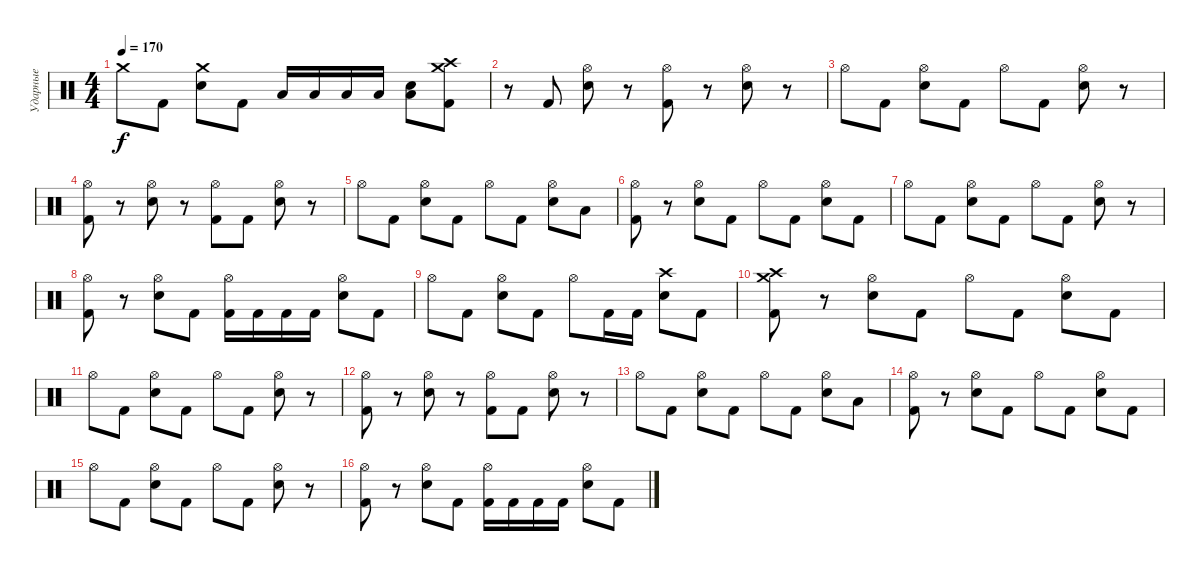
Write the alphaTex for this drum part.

\track ("Ударные" "Ударные") {instrument percussion}
\staff {score}
\articulation defaults
\ts (4 4)
\tempo 170
\clef neutral
\ks c "Crash medium (hit)".8{dy f} "Kick (hit) 2".8
("Crash medium (hit)" "Electric Snare (hit)").8 "Kick (hit) 2".8 "Low Tom (hit)".16 "Low Tom (hit)".16 "Low Floor Tom (hit)".16 "Low Floor Tom (hit)".16 ("Low Floor Tom (hit)" "Electric Snare (hit)").8 ("Crash medium (hit)" "Crash high (hit)" "Kick (hit) 2").8 |
r.8 "Kick (hit) 2".8 ("Hi-Hat (open)" "Electric Snare (hit)").8 r.8 ("Hi-Hat (open)" "Kick (hit) 2").8 r.8 ("Hi-Hat (open)" "Electric Snare (hit)").8 r.8 |
"Hi-Hat (open)".8 "Kick (hit) 2".8 ("Hi-Hat (open)" "Electric Snare (hit)").8 "Kick (hit) 2".8 "Hi-Hat (open)".8 "Kick (hit) 2".8 ("Hi-Hat (open)" "Electric Snare (hit)").8 r.8 |
("Hi-Hat (open)" "Kick (hit) 2").8 r.8 ("Hi-Hat (open)" "Electric Snare (hit)").8 r.8 ("Hi-Hat (open)" "Kick (hit) 2").8 "Kick (hit) 2".8 ("Hi-Hat (open)" "Electric Snare (hit)").8 r.8 |
"Hi-Hat (open)".8 "Kick (hit) 2".8 ("Hi-Hat (open)" "Electric Snare (hit)").8 "Kick (hit) 2".8 "Hi-Hat (open)".8 "Kick (hit) 2".8 ("Hi-Hat (open)" "Electric Snare (hit)").8 "Low Tom (hit)".8 |
("Hi-Hat (open)" "Kick (hit) 2").8 r.8 ("Hi-Hat (open)" "Electric Snare (hit)").8 "Kick (hit) 2".8 "Hi-Hat (open)".8 "Kick (hit) 2".8 ("Hi-Hat (open)" "Electric Snare (hit)").8 "Kick (hit) 2".8 |
"Hi-Hat (open)".8 "Kick (hit) 2".8 ("Hi-Hat (open)" "Electric Snare (hit)").8 "Kick (hit) 2".8 "Hi-Hat (open)".8 "Kick (hit) 2".8 ("Hi-Hat (open)" "Electric Snare (hit)").8 r.8 |
("Hi-Hat (open)" "Kick (hit) 2").8 r.8 ("Hi-Hat (open)" "Electric Snare (hit)").8 "Kick (hit) 2".8 ("Hi-Hat (open)" "Kick (hit) 2").16 "Kick (hit) 2".16 "Kick (hit) 2".16 "Kick (hit) 2".16 ("Hi-Hat (open)" "Electric Snare (hit)").8 "Kick (hit) 2".8 |
"Hi-Hat (open)".8 "Kick (hit) 2".8 ("Hi-Hat (open)" "Electric Snare (hit)").8 "Kick (hit) 2".8 "Hi-Hat (open)".8 "Kick (hit) 2".16 "Kick (hit) 2".16 ("Crash high (hit)" "Electric Snare (hit)").8 "Kick (hit) 2".8 |
("Crash medium (hit)" "Crash high (hit)" "Kick (hit) 2").8 r.8 ("Hi-Hat (open)" "Electric Snare (hit)").8 "Kick (hit) 2".8 "Hi-Hat (open)".8 "Kick (hit) 2".8 ("Hi-Hat (open)" "Electric Snare (hit)").8 "Kick (hit) 2".8 |
"Hi-Hat (open)".8 "Kick (hit) 2".8 ("Hi-Hat (open)" "Electric Snare (hit)").8 "Kick (hit) 2".8 "Hi-Hat (open)".8 "Kick (hit) 2".8 ("Hi-Hat (open)" "Electric Snare (hit)").8 r.8 |
("Hi-Hat (open)" "Kick (hit) 2").8 r.8 ("Hi-Hat (open)" "Electric Snare (hit)").8 r.8 ("Hi-Hat (open)" "Kick (hit) 2").8 "Kick (hit) 2".8 ("Hi-Hat (open)" "Electric Snare (hit)").8 r.8 |
"Hi-Hat (open)".8 "Kick (hit) 2".8 ("Hi-Hat (open)" "Electric Snare (hit)").8 "Kick (hit) 2".8 "Hi-Hat (open)".8 "Kick (hit) 2".8 ("Hi-Hat (open)" "Electric Snare (hit)").8 "Low Tom (hit)".8 |
("Hi-Hat (open)" "Kick (hit) 2").8 r.8 ("Hi-Hat (open)" "Electric Snare (hit)").8 "Kick (hit) 2".8 "Hi-Hat (open)".8 "Kick (hit) 2".8 ("Hi-Hat (open)" "Electric Snare (hit)").8 "Kick (hit) 2".8 |
"Hi-Hat (open)".8 "Kick (hit) 2".8 ("Hi-Hat (open)" "Electric Snare (hit)").8 "Kick (hit) 2".8 "Hi-Hat (open)".8 "Kick (hit) 2".8 ("Hi-Hat (open)" "Electric Snare (hit)").8 r.8 |
("Hi-Hat (open)" "Kick (hit) 2").8 r.8 ("Hi-Hat (open)" "Electric Snare (hit)").8 "Kick (hit) 2".8 ("Hi-Hat (open)" "Kick (hit) 2").16 "Kick (hit) 2".16 "Kick (hit) 2".16 "Kick (hit) 2".16 ("Hi-Hat (open)" "Electric Snare (hit)").8 "Kick (hit) 2".8
